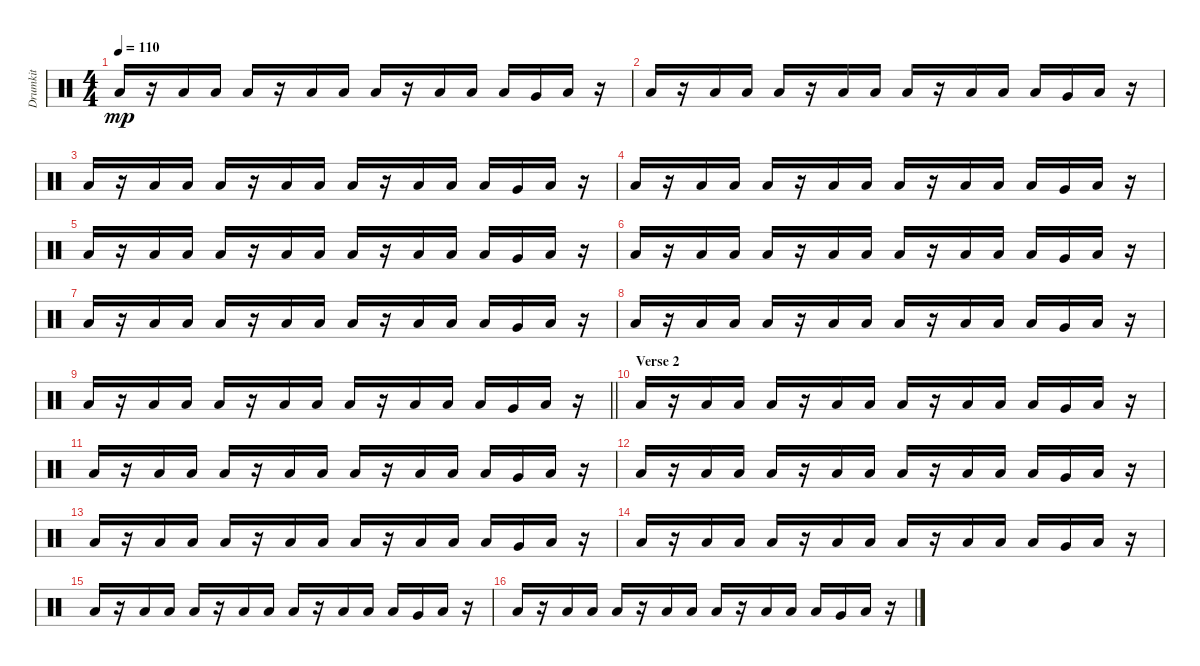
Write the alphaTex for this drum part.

\track ("Drumkit" "Drumkit") {instrument percussion}
\staff {score}
\articulation defaults
\ts (4 4)
\tempo 110
\clef neutral
\ks c "Low Tom (hit)".16{dy mp}
r.16 "Low Tom (hit)".16 "Low Tom (hit)".16 "Low Tom (hit)".16 r.16 "Low Tom (hit)".16 "Low Tom (hit)".16 "Low Tom (hit)".16 r.16 "Low Tom (hit)".16 "Low Tom (hit)".16 "Low Tom (hit)".16 "Very Low Tom (hit)".16 "Low Tom (hit)".16 r.16 |
"Low Tom (hit)".16 r.16 "Low Tom (hit)".16 "Low Tom (hit)".16 "Low Tom (hit)".16 r.16 "Low Tom (hit)".16 "Low Tom (hit)".16 "Low Tom (hit)".16 r.16 "Low Tom (hit)".16 "Low Tom (hit)".16 "Low Tom (hit)".16 "Very Low Tom (hit)".16 "Low Tom (hit)".16 r.16 |
"Low Tom (hit)".16 r.16 "Low Tom (hit)".16 "Low Tom (hit)".16 "Low Tom (hit)".16 r.16 "Low Tom (hit)".16 "Low Tom (hit)".16 "Low Tom (hit)".16 r.16 "Low Tom (hit)".16 "Low Tom (hit)".16 "Low Tom (hit)".16 "Very Low Tom (hit)".16 "Low Tom (hit)".16 r.16 |
"Low Tom (hit)".16 r.16 "Low Tom (hit)".16 "Low Tom (hit)".16 "Low Tom (hit)".16 r.16 "Low Tom (hit)".16 "Low Tom (hit)".16 "Low Tom (hit)".16 r.16 "Low Tom (hit)".16 "Low Tom (hit)".16 "Low Tom (hit)".16 "Very Low Tom (hit)".16 "Low Tom (hit)".16 r.16 |
"Low Tom (hit)".16 r.16 "Low Tom (hit)".16 "Low Tom (hit)".16 "Low Tom (hit)".16 r.16 "Low Tom (hit)".16 "Low Tom (hit)".16 "Low Tom (hit)".16 r.16 "Low Tom (hit)".16 "Low Tom (hit)".16 "Low Tom (hit)".16 "Very Low Tom (hit)".16 "Low Tom (hit)".16 r.16 |
"Low Tom (hit)".16 r.16 "Low Tom (hit)".16 "Low Tom (hit)".16 "Low Tom (hit)".16 r.16 "Low Tom (hit)".16 "Low Tom (hit)".16 "Low Tom (hit)".16 r.16 "Low Tom (hit)".16 "Low Tom (hit)".16 "Low Tom (hit)".16 "Very Low Tom (hit)".16 "Low Tom (hit)".16 r.16 |
"Low Tom (hit)".16 r.16 "Low Tom (hit)".16 "Low Tom (hit)".16 "Low Tom (hit)".16 r.16 "Low Tom (hit)".16 "Low Tom (hit)".16 "Low Tom (hit)".16 r.16 "Low Tom (hit)".16 "Low Tom (hit)".16 "Low Tom (hit)".16 "Very Low Tom (hit)".16 "Low Tom (hit)".16 r.16 |
"Low Tom (hit)".16 r.16 "Low Tom (hit)".16 "Low Tom (hit)".16 "Low Tom (hit)".16 r.16 "Low Tom (hit)".16 "Low Tom (hit)".16 "Low Tom (hit)".16 r.16 "Low Tom (hit)".16 "Low Tom (hit)".16 "Low Tom (hit)".16 "Very Low Tom (hit)".16 "Low Tom (hit)".16 r.16 |
\barLineRight lightlight "Low Tom (hit)".16
r.16 "Low Tom (hit)".16 "Low Tom (hit)".16 "Low Tom (hit)".16 r.16 "Low Tom (hit)".16 "Low Tom (hit)".16 "Low Tom (hit)".16 r.16 "Low Tom (hit)".16 "Low Tom (hit)".16 "Low Tom (hit)".16 "Very Low Tom (hit)".16 "Low Tom (hit)".16 r.16 |
\section ("" "Verse 2")
"Low Tom (hit)".16 r.16 "Low Tom (hit)".16 "Low Tom (hit)".16 "Low Tom (hit)".16 r.16 "Low Tom (hit)".16 "Low Tom (hit)".16 "Low Tom (hit)".16 r.16 "Low Tom (hit)".16 "Low Tom (hit)".16 "Low Tom (hit)".16 "Very Low Tom (hit)".16 "Low Tom (hit)".16 r.16 |
"Low Tom (hit)".16 r.16 "Low Tom (hit)".16 "Low Tom (hit)".16 "Low Tom (hit)".16 r.16 "Low Tom (hit)".16 "Low Tom (hit)".16 "Low Tom (hit)".16 r.16 "Low Tom (hit)".16 "Low Tom (hit)".16 "Low Tom (hit)".16 "Very Low Tom (hit)".16 "Low Tom (hit)".16 r.16 |
"Low Tom (hit)".16 r.16 "Low Tom (hit)".16 "Low Tom (hit)".16 "Low Tom (hit)".16 r.16 "Low Tom (hit)".16 "Low Tom (hit)".16 "Low Tom (hit)".16 r.16 "Low Tom (hit)".16 "Low Tom (hit)".16 "Low Tom (hit)".16 "Very Low Tom (hit)".16 "Low Tom (hit)".16 r.16 |
"Low Tom (hit)".16 r.16 "Low Tom (hit)".16 "Low Tom (hit)".16 "Low Tom (hit)".16 r.16 "Low Tom (hit)".16 "Low Tom (hit)".16 "Low Tom (hit)".16 r.16 "Low Tom (hit)".16 "Low Tom (hit)".16 "Low Tom (hit)".16 "Very Low Tom (hit)".16 "Low Tom (hit)".16 r.16 |
"Low Tom (hit)".16 r.16 "Low Tom (hit)".16 "Low Tom (hit)".16 "Low Tom (hit)".16 r.16 "Low Tom (hit)".16 "Low Tom (hit)".16 "Low Tom (hit)".16 r.16 "Low Tom (hit)".16 "Low Tom (hit)".16 "Low Tom (hit)".16 "Very Low Tom (hit)".16 "Low Tom (hit)".16 r.16 |
"Low Tom (hit)".16 r.16 "Low Tom (hit)".16 "Low Tom (hit)".16 "Low Tom (hit)".16 r.16 "Low Tom (hit)".16 "Low Tom (hit)".16 "Low Tom (hit)".16 r.16 "Low Tom (hit)".16 "Low Tom (hit)".16 "Low Tom (hit)".16 "Very Low Tom (hit)".16 "Low Tom (hit)".16 r.16 |
"Low Tom (hit)".16 r.16 "Low Tom (hit)".16 "Low Tom (hit)".16 "Low Tom (hit)".16 r.16 "Low Tom (hit)".16 "Low Tom (hit)".16 "Low Tom (hit)".16 r.16 "Low Tom (hit)".16 "Low Tom (hit)".16 "Low Tom (hit)".16 "Very Low Tom (hit)".16 "Low Tom (hit)".16 r.16
